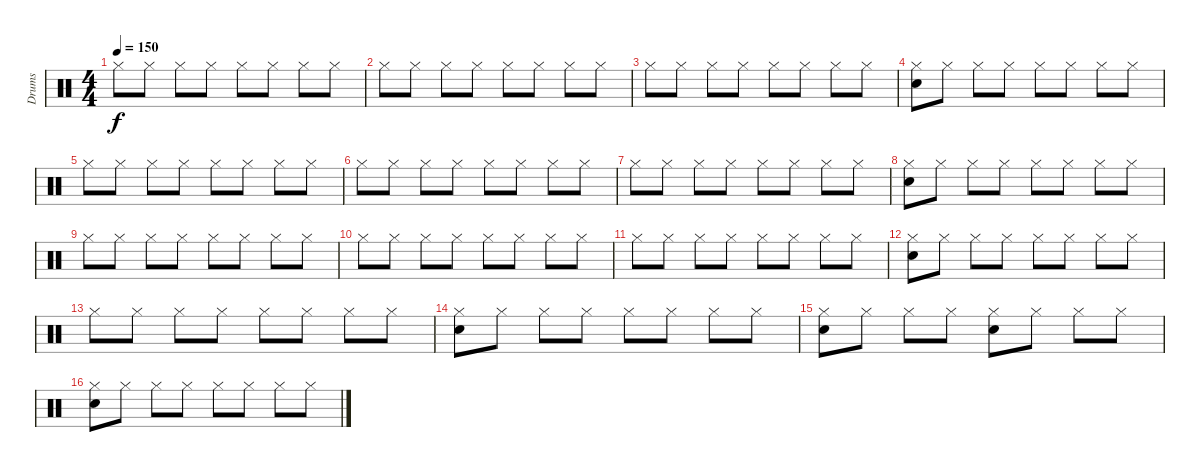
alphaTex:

\track ("Drums" "Drums") {instrument percussion}
\staff {score}
\articulation defaults
\ts (4 4)
\tempo 150
\clef neutral
\ks c "Hi-Hat (closed)".8{dy f} "Hi-Hat (closed)".8 "Hi-Hat (closed)".8 "Hi-Hat (closed)".8 "Hi-Hat (closed)".8 "Hi-Hat (closed)".8 "Hi-Hat (closed)".8 "Hi-Hat (closed)".8
|
"Hi-Hat (closed)".8 "Hi-Hat (closed)".8 "Hi-Hat (closed)".8 "Hi-Hat (closed)".8 "Hi-Hat (closed)".8 "Hi-Hat (closed)".8 "Hi-Hat (closed)".8 "Hi-Hat (closed)".8 |
"Hi-Hat (closed)".8 "Hi-Hat (closed)".8 "Hi-Hat (closed)".8 "Hi-Hat (closed)".8 "Hi-Hat (closed)".8 "Hi-Hat (closed)".8 "Hi-Hat (closed)".8 "Hi-Hat (closed)".8 |
("Hi-Hat (closed)" "Snare (hit) 2").8 "Hi-Hat (closed)".8 "Hi-Hat (closed)".8 "Hi-Hat (closed)".8 "Hi-Hat (closed)".8 "Hi-Hat (closed)".8 "Hi-Hat (closed)".8 "Hi-Hat (closed)".8 |
"Hi-Hat (closed)".8 "Hi-Hat (closed)".8 "Hi-Hat (closed)".8 "Hi-Hat (closed)".8 "Hi-Hat (closed)".8 "Hi-Hat (closed)".8 "Hi-Hat (closed)".8 "Hi-Hat (closed)".8 |
"Hi-Hat (closed)".8 "Hi-Hat (closed)".8 "Hi-Hat (closed)".8 "Hi-Hat (closed)".8 "Hi-Hat (closed)".8 "Hi-Hat (closed)".8 "Hi-Hat (closed)".8 "Hi-Hat (closed)".8 |
"Hi-Hat (closed)".8 "Hi-Hat (closed)".8 "Hi-Hat (closed)".8 "Hi-Hat (closed)".8 "Hi-Hat (closed)".8 "Hi-Hat (closed)".8 "Hi-Hat (closed)".8 "Hi-Hat (closed)".8 |
("Hi-Hat (closed)" "Snare (hit) 2").8 "Hi-Hat (closed)".8 "Hi-Hat (closed)".8 "Hi-Hat (closed)".8 "Hi-Hat (closed)".8 "Hi-Hat (closed)".8 "Hi-Hat (closed)".8 "Hi-Hat (closed)".8 |
"Hi-Hat (closed)".8 "Hi-Hat (closed)".8 "Hi-Hat (closed)".8 "Hi-Hat (closed)".8 "Hi-Hat (closed)".8 "Hi-Hat (closed)".8 "Hi-Hat (closed)".8 "Hi-Hat (closed)".8 |
"Hi-Hat (closed)".8 "Hi-Hat (closed)".8 "Hi-Hat (closed)".8 "Hi-Hat (closed)".8 "Hi-Hat (closed)".8 "Hi-Hat (closed)".8 "Hi-Hat (closed)".8 "Hi-Hat (closed)".8 |
"Hi-Hat (closed)".8 "Hi-Hat (closed)".8 "Hi-Hat (closed)".8 "Hi-Hat (closed)".8 "Hi-Hat (closed)".8 "Hi-Hat (closed)".8 "Hi-Hat (closed)".8 "Hi-Hat (closed)".8 |
("Hi-Hat (closed)" "Snare (hit) 2").8 "Hi-Hat (closed)".8 "Hi-Hat (closed)".8 "Hi-Hat (closed)".8 "Hi-Hat (closed)".8 "Hi-Hat (closed)".8 "Hi-Hat (closed)".8 "Hi-Hat (closed)".8 |
"Hi-Hat (closed)".8 "Hi-Hat (closed)".8 "Hi-Hat (closed)".8 "Hi-Hat (closed)".8 "Hi-Hat (closed)".8 "Hi-Hat (closed)".8 "Hi-Hat (closed)".8 "Hi-Hat (closed)".8 |
("Hi-Hat (closed)" "Snare (hit) 2").8 "Hi-Hat (closed)".8 "Hi-Hat (closed)".8 "Hi-Hat (closed)".8 "Hi-Hat (closed)".8 "Hi-Hat (closed)".8 "Hi-Hat (closed)".8 "Hi-Hat (closed)".8 |
("Hi-Hat (closed)" "Snare (hit) 2").8 "Hi-Hat (closed)".8 "Hi-Hat (closed)".8 "Hi-Hat (closed)".8 ("Hi-Hat (closed)" "Snare (hit) 2").8 "Hi-Hat (closed)".8 "Hi-Hat (closed)".8 "Hi-Hat (closed)".8 |
("Hi-Hat (closed)" "Snare (hit) 2").8 "Hi-Hat (closed)".8 "Hi-Hat (closed)".8 "Hi-Hat (closed)".8 "Hi-Hat (closed)".8 "Hi-Hat (closed)".8 "Hi-Hat (closed)".8 "Hi-Hat (closed)".8
